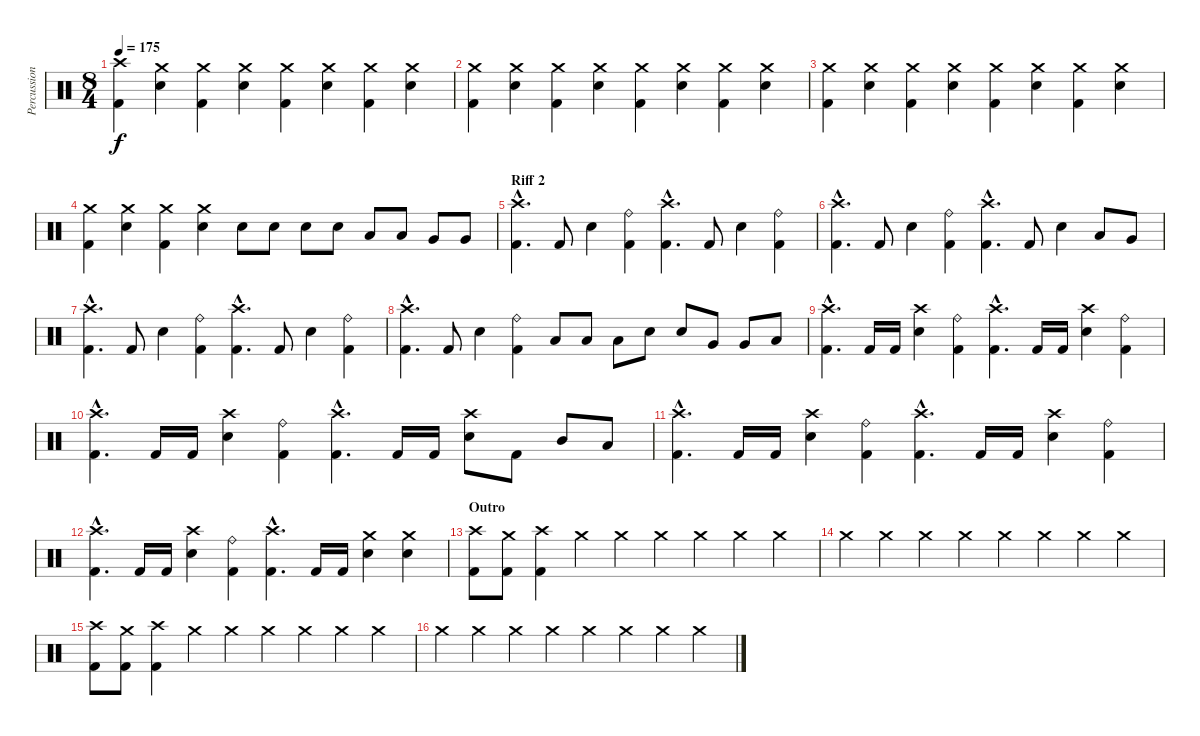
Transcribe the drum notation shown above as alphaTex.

\track ("Percussion" "Percussion") {instrument percussion}
\staff {score}
\articulation defaults
\ts (8 4)
\tempo 175
\clef neutral
\ks c
("Kick (hit) 2" "Crash high (hit)").4{dy f} ("Electric Snare (hit)" "Crash medium (hit)").4 ("Kick (hit) 2" "Crash medium (hit)").4 ("Electric Snare (hit)" "Crash medium (hit)").4 ("Kick (hit) 2" "Crash medium (hit)").4 ("Electric Snare (hit)" "Crash medium (hit)").4 ("Kick (hit) 2" "Crash medium (hit)").4 ("Electric Snare (hit)" "Crash medium (hit)").4 |
("Kick (hit) 2" "Crash medium (hit)").4 ("Electric Snare (hit)" "Crash medium (hit)").4 ("Kick (hit) 2" "Crash medium (hit)").4 ("Electric Snare (hit)" "Crash medium (hit)").4 ("Kick (hit) 2" "Crash medium (hit)").4 ("Electric Snare (hit)" "Crash medium (hit)").4 ("Kick (hit) 2" "Crash medium (hit)").4 ("Electric Snare (hit)" "Crash medium (hit)").4 |
("Kick (hit) 2" "Crash medium (hit)").4 ("Electric Snare (hit)" "Crash medium (hit)").4 ("Kick (hit) 2" "Crash medium (hit)").4 ("Electric Snare (hit)" "Crash medium (hit)").4 ("Kick (hit) 2" "Crash medium (hit)").4 ("Electric Snare (hit)" "Crash medium (hit)").4 ("Kick (hit) 2" "Crash medium (hit)").4 ("Electric Snare (hit)" "Crash medium (hit)").4 |
("Kick (hit) 2" "Crash medium (hit)").4 ("Electric Snare (hit)" "Crash medium (hit)").4 ("Kick (hit) 2" "Crash medium (hit)").4 ("Electric Snare (hit)" "Crash medium (hit)").4 "Electric Snare (hit)".8 "Electric Snare (hit)".8 "Electric Snare (hit)".8 "Electric Snare (hit)".8 "Low Tom (hit)".8 "Low Tom (hit)".8 "Very Low Tom (hit)".8 "Very Low Tom (hit)".8 |
\section ("" "Riff 2")
("Kick (hit) 2"{hac} "Crash high (hit)"{hac}).4{d} "Kick (hit) 2".8 "Electric Snare (hit)".4 ("Kick (hit) 2" "Ride (bell)").4 ("Kick (hit) 2"{hac} "Crash high (hit)"{hac}).4{d} "Kick (hit) 2".8 "Electric Snare (hit)".4 ("Kick (hit) 2" "Ride (bell)").4 |
("Kick (hit) 2"{hac} "Crash high (hit)"{hac}).4{d} "Kick (hit) 2".8 "Electric Snare (hit)".4 ("Kick (hit) 2" "Ride (bell)").4 ("Kick (hit) 2"{hac} "Crash high (hit)"{hac}).4{d} "Kick (hit) 2".8 "Electric Snare (hit)".4 "Low Tom (hit)".8 "Very Low Tom (hit)".8 |
("Kick (hit) 2"{hac} "Crash high (hit)"{hac}).4{d} "Kick (hit) 2".8 "Electric Snare (hit)".4 ("Kick (hit) 2" "Ride (bell)").4 ("Kick (hit) 2"{hac} "Crash high (hit)"{hac}).4{d} "Kick (hit) 2".8 "Electric Snare (hit)".4 ("Kick (hit) 2" "Ride (bell)").4 |
("Kick (hit) 2"{hac} "Crash high (hit)"{hac}).4{d} "Kick (hit) 2".8 "Electric Snare (hit)".4 ("Kick (hit) 2" "Ride (bell)").4 "Low Tom (hit)".8 "Low Tom (hit)".8 "Low Tom (hit)".8 "Electric Snare (hit)".8 "Electric Snare (hit)".8 "Very Low Tom (hit)".8 "Very Low Tom (hit)".8 "Low Floor Tom (hit)".8 |
("Kick (hit) 2"{hac} "Crash high (hit)"{hac}).4{d} "Kick (hit) 2".16 "Kick (hit) 2".16 ("Electric Snare (hit)" "Crash high (hit)").4 ("Kick (hit) 2" "Ride (bell)").4 ("Kick (hit) 2"{hac} "Crash high (hit)"{hac}).4{d} "Kick (hit) 2".16 "Kick (hit) 2".16 ("Electric Snare (hit)" "Crash high (hit)").4 ("Kick (hit) 2" "Ride (bell)").4 |
("Kick (hit) 2"{hac} "Crash high (hit)"{hac}).4{d} "Kick (hit) 2".16 "Kick (hit) 2".16 ("Electric Snare (hit)" "Crash high (hit)").4 ("Kick (hit) 2" "Ride (bell)").4 ("Kick (hit) 2"{hac} "Crash high (hit)"{hac}).4{d} "Kick (hit) 2".16 "Kick (hit) 2".16 ("Electric Snare (hit)" "Crash high (hit)").8 "Kick (hit) 2".8 "Mid Tom (hit)".8 "Low Tom (hit)".8 |
("Kick (hit) 2"{hac} "Crash high (hit)"{hac}).4{d} "Kick (hit) 2".16 "Kick (hit) 2".16 ("Electric Snare (hit)" "Crash high (hit)").4 ("Kick (hit) 2" "Ride (bell)").4 ("Kick (hit) 2"{hac} "Crash high (hit)"{hac}).4{d} "Kick (hit) 2".16 "Kick (hit) 2".16 ("Electric Snare (hit)" "Crash high (hit)").4 ("Kick (hit) 2" "Ride (bell)").4 |
("Kick (hit) 2"{hac} "Crash high (hit)"{hac}).4{d} "Kick (hit) 2".16 "Kick (hit) 2".16 ("Electric Snare (hit)" "Crash high (hit)").4 ("Kick (hit) 2" "Ride (bell)").4 ("Kick (hit) 2"{hac} "Crash high (hit)"{hac}).4{d} "Kick (hit) 2".16 "Kick (hit) 2".16 ("Electric Snare (hit)" "Crash medium (hit)").4 ("Electric Snare (hit)" "Crash medium (hit)").4 |
\section ("" "Outro")
("Kick (hit) 2" "Crash high (hit)").8 ("Kick (hit) 2" "Crash medium (hit)").8 ("Kick (hit) 2" "Crash high (hit)").4 "Crash medium (hit)".4 "Crash medium (hit)".4 "Crash medium (hit)".4 "Crash medium (hit)".4 "Crash medium (hit)".4 "Crash medium (hit)".4 |
"Crash medium (hit)".4 "Crash medium (hit)".4 "Crash medium (hit)".4 "Crash medium (hit)".4 "Crash medium (hit)".4 "Crash medium (hit)".4 "Crash medium (hit)".4 "Crash medium (hit)".4 |
("Kick (hit) 2" "Crash high (hit)").8 ("Kick (hit) 2" "Crash medium (hit)").8 ("Kick (hit) 2" "Crash high (hit)").4 "Crash medium (hit)".4 "Crash medium (hit)".4 "Crash medium (hit)".4 "Crash medium (hit)".4 "Crash medium (hit)".4 "Crash medium (hit)".4 |
"Crash medium (hit)".4 "Crash medium (hit)".4 "Crash medium (hit)".4 "Crash medium (hit)".4 "Crash medium (hit)".4 "Crash medium (hit)".4 "Crash medium (hit)".4 "Crash medium (hit)".4
